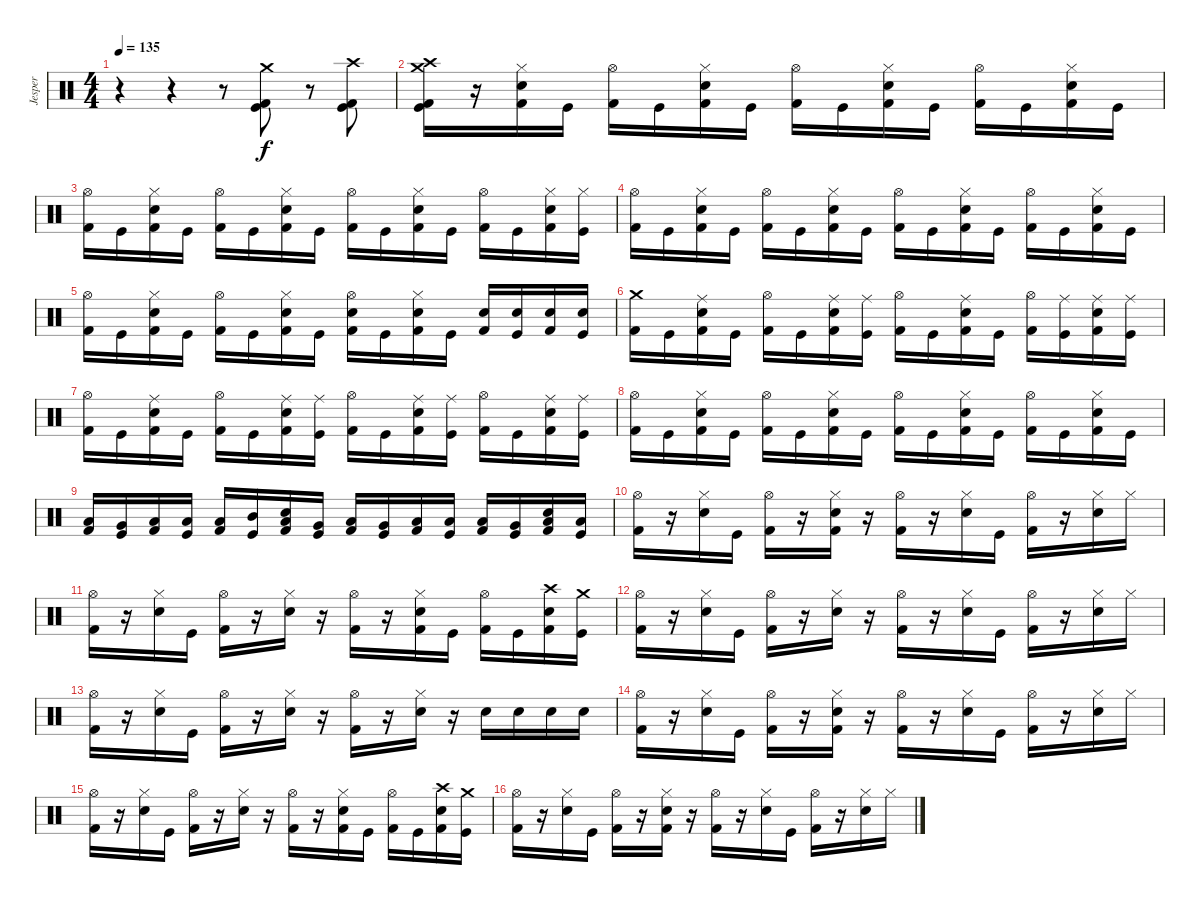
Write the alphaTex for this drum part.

\track ("Jesper" "Jesper") {instrument percussion}
\staff {score}
\articulation defaults
\ts (4 4)
\tempo 135
\clef neutral
\ks c
r.4{dy f} r.4 r.8 ("Kick (hit) 2" "Kick (hit)" "Crash medium (hit)").8 r.8 ("Kick (hit) 2" "Kick (hit)" "Crash high (hit)").8 |
("Kick (hit) 2" "Kick (hit)" "Crash high (hit)" "Crash medium (hit)").16 r.16 ("Kick (hit) 2" "Snare (hit) 2" "Hi-Hat (closed)").16 "Kick (hit)".16 ("Kick (hit) 2" "Hi-Hat (open)").16 "Kick (hit)".16 ("Kick (hit) 2" "Snare (hit) 2" "Hi-Hat (closed)").16 "Kick (hit)".16 ("Kick (hit) 2" "Hi-Hat (open)").16 "Kick (hit)".16 ("Kick (hit) 2" "Snare (hit) 2" "Hi-Hat (closed)").16 "Kick (hit)".16 ("Kick (hit) 2" "Hi-Hat (open)").16 "Kick (hit)".16 ("Kick (hit) 2" "Snare (hit) 2" "Hi-Hat (closed)").16 "Kick (hit)".16 |
("Kick (hit) 2" "Hi-Hat (open)").16 "Kick (hit)".16 ("Kick (hit) 2" "Snare (hit) 2" "Hi-Hat (closed)").16 "Kick (hit)".16 ("Kick (hit) 2" "Hi-Hat (open)").16 "Kick (hit)".16 ("Kick (hit) 2" "Snare (hit) 2" "Hi-Hat (closed)").16 "Kick (hit)".16 ("Kick (hit) 2" "Hi-Hat (open)").16 "Kick (hit)".16 ("Kick (hit) 2" "Snare (hit) 2" "Hi-Hat (closed)").16 "Kick (hit)".16 ("Kick (hit) 2" "Hi-Hat (open)").16 "Kick (hit)".16 ("Kick (hit) 2" "Snare (hit) 2" "Hi-Hat (closed)").16 ("Kick (hit)" "Hi-Hat (closed)").16 |
("Kick (hit) 2" "Hi-Hat (open)").16 "Kick (hit)".16 ("Kick (hit) 2" "Snare (hit) 2" "Hi-Hat (closed)").16 "Kick (hit)".16 ("Kick (hit) 2" "Hi-Hat (open)").16 "Kick (hit)".16 ("Kick (hit) 2" "Snare (hit) 2" "Hi-Hat (closed)").16 "Kick (hit)".16 ("Kick (hit) 2" "Hi-Hat (open)").16 "Kick (hit)".16 ("Kick (hit) 2" "Snare (hit) 2" "Hi-Hat (closed)").16 "Kick (hit)".16 ("Kick (hit) 2" "Hi-Hat (open)").16 "Kick (hit)".16 ("Kick (hit) 2" "Snare (hit) 2" "Hi-Hat (closed)").16 "Kick (hit)".16 |
("Kick (hit) 2" "Hi-Hat (open)").16 "Kick (hit)".16 ("Kick (hit) 2" "Snare (hit) 2" "Hi-Hat (closed)").16 "Kick (hit)".16 ("Kick (hit) 2" "Hi-Hat (open)").16 "Kick (hit)".16 ("Kick (hit) 2" "Snare (hit) 2" "Hi-Hat (closed)").16 "Kick (hit)".16 ("Kick (hit) 2" "Snare (hit) 2" "Hi-Hat (open)").16 "Kick (hit)".16 ("Kick (hit) 2" "Snare (hit) 2" "Hi-Hat (closed)").16 "Kick (hit)".16 ("Kick (hit) 2" "Snare (hit) 2").16 ("Kick (hit)" "Snare (hit) 2").16 ("Kick (hit) 2" "Snare (hit) 2").16 ("Kick (hit)" "Snare (hit) 2").16 |
("Kick (hit) 2" "Crash medium (hit)").16 "Kick (hit)".16 ("Kick (hit) 2" "Snare (hit) 2" "Ride (middle)").16 "Kick (hit)".16 ("Kick (hit) 2" "Hi-Hat (open)").16 "Kick (hit)".16 ("Kick (hit) 2" "Snare (hit) 2" "Ride (middle)").16 ("Kick (hit)" "Ride (middle)").16 ("Kick (hit) 2" "Hi-Hat (open)").16 "Kick (hit)".16 ("Kick (hit) 2" "Snare (hit) 2" "Ride (middle)").16 "Kick (hit)".16 ("Kick (hit) 2" "Hi-Hat (open)").16 ("Kick (hit)" "Ride (middle)").16 ("Kick (hit) 2" "Snare (hit) 2" "Ride (middle)").16 ("Kick (hit)" "Ride (middle)").16 |
("Kick (hit) 2" "Hi-Hat (open)").16 "Kick (hit)".16 ("Kick (hit) 2" "Snare (hit) 2" "Ride (middle)").16 "Kick (hit)".16 ("Kick (hit) 2" "Hi-Hat (open)").16 "Kick (hit)".16 ("Kick (hit) 2" "Snare (hit) 2" "Ride (middle)").16 ("Kick (hit)" "Ride (middle)").16 ("Kick (hit) 2" "Hi-Hat (open)").16 "Kick (hit)".16 ("Kick (hit) 2" "Snare (hit) 2" "Ride (middle)").16 ("Kick (hit)" "Ride (middle)").16 ("Kick (hit) 2" "Hi-Hat (open)").16 "Kick (hit)".16 ("Kick (hit) 2" "Snare (hit) 2" "Ride (middle)").16 ("Kick (hit)" "Ride (middle)").16 |
("Kick (hit) 2" "Hi-Hat (open)").16 "Kick (hit)".16 ("Kick (hit) 2" "Snare (hit) 2" "Hi-Hat (closed)").16 "Kick (hit)".16 ("Kick (hit) 2" "Hi-Hat (open)").16 "Kick (hit)".16 ("Kick (hit) 2" "Snare (hit) 2" "Hi-Hat (closed)").16 "Kick (hit)".16 ("Kick (hit) 2" "Hi-Hat (open)").16 "Kick (hit)".16 ("Kick (hit) 2" "Snare (hit) 2" "Hi-Hat (closed)").16 "Kick (hit)".16 ("Kick (hit) 2" "Hi-Hat (open)").16 "Kick (hit)".16 ("Kick (hit) 2" "Snare (hit) 2" "Hi-Hat (closed)").16 "Kick (hit)".16 |
("Kick (hit) 2" "Low Floor Tom (hit)").16 ("Kick (hit)" "Very Low Tom (hit)").16 ("Kick (hit) 2" "Low Floor Tom (hit)").16 ("Kick (hit)" "Low Tom (hit)").16 ("Kick (hit) 2" "Low Floor Tom (hit)").16 ("Kick (hit)" "Mid Tom (hit)").16 ("Kick (hit) 2" "Snare (hit) 2" "Low Floor Tom (hit)").16 ("Kick (hit)" "Very Low Tom (hit)").16 ("Kick (hit) 2" "Low Floor Tom (hit)").16 ("Kick (hit)" "Very Low Tom (hit)").16 ("Kick (hit) 2" "Low Floor Tom (hit)").16 ("Kick (hit)" "Low Tom (hit)").16 ("Kick (hit) 2" "Low Floor Tom (hit)").16 ("Kick (hit)" "Very Low Tom (hit)").16 ("Kick (hit) 2" "Snare (hit) 2" "Low Floor Tom (hit)").16 ("Kick (hit)" "Low Floor Tom (hit)").16 |
("Kick (hit) 2" "Hi-Hat (open)").16 r.16 ("Snare (hit) 2" "Hi-Hat (closed)").16 "Kick (hit)".16 ("Kick (hit) 2" "Hi-Hat (open)").16 r.16 ("Kick (hit) 2" "Snare (hit) 2" "Hi-Hat (closed)").16 r.16 ("Kick (hit) 2" "Hi-Hat (open)").16 r.16 ("Snare (hit) 2" "Hi-Hat (closed)").16 "Kick (hit)".16 ("Kick (hit) 2" "Hi-Hat (open)").16 r.16 ("Snare (hit) 2" "Hi-Hat (closed)").16 "Hi-Hat (closed)".16 |
("Kick (hit) 2" "Hi-Hat (open)").16 r.16 ("Snare (hit) 2" "Hi-Hat (closed)").16 "Kick (hit)".16 ("Kick (hit) 2" "Hi-Hat (open)").16 r.16 ("Snare (hit) 2" "Hi-Hat (closed)").16 r.16 ("Kick (hit) 2" "Hi-Hat (open)").16 r.16 ("Kick (hit) 2" "Snare (hit) 2" "Hi-Hat (closed)").16 "Kick (hit)".16 ("Kick (hit) 2" "Hi-Hat (open)").16 "Kick (hit)".16 ("Kick (hit) 2" "Snare (hit) 2" "Crash high (hit)").16 ("Kick (hit)" "Crash medium (hit)").16 |
("Kick (hit) 2" "Hi-Hat (open)").16 r.16 ("Snare (hit) 2" "Hi-Hat (closed)").16 "Kick (hit)".16 ("Kick (hit) 2" "Hi-Hat (open)").16 r.16 ("Snare (hit) 2" "Hi-Hat (closed)").16 r.16 ("Kick (hit) 2" "Hi-Hat (open)").16 r.16 ("Snare (hit) 2" "Hi-Hat (closed)").16 "Kick (hit)".16 ("Kick (hit) 2" "Hi-Hat (open)").16 r.16 ("Snare (hit) 2" "Hi-Hat (closed)").16 "Hi-Hat (closed)".16 |
("Kick (hit) 2" "Hi-Hat (open)").16 r.16 ("Snare (hit) 2" "Hi-Hat (closed)").16 "Kick (hit)".16 ("Kick (hit) 2" "Hi-Hat (open)").16 r.16 ("Snare (hit) 2" "Hi-Hat (closed)").16 r.16 ("Kick (hit) 2" "Hi-Hat (open)").16 r.16 ("Snare (hit) 2" "Hi-Hat (closed)").16 r.16 "Snare (hit) 2".16 "Snare (hit) 2".16 "Snare (hit) 2".16 "Snare (hit) 2".16 |
("Kick (hit) 2" "Hi-Hat (open)").16 r.16 ("Snare (hit) 2" "Hi-Hat (closed)").16 "Kick (hit)".16 ("Kick (hit) 2" "Hi-Hat (open)").16 r.16 ("Kick (hit) 2" "Snare (hit) 2" "Hi-Hat (closed)").16 r.16 ("Kick (hit) 2" "Hi-Hat (open)").16 r.16 ("Snare (hit) 2" "Hi-Hat (closed)").16 "Kick (hit)".16 ("Kick (hit) 2" "Hi-Hat (open)").16 r.16 ("Snare (hit) 2" "Hi-Hat (closed)").16 "Hi-Hat (closed)".16 |
("Kick (hit) 2" "Hi-Hat (open)").16 r.16 ("Snare (hit) 2" "Hi-Hat (closed)").16 "Kick (hit)".16 ("Kick (hit) 2" "Hi-Hat (open)").16 r.16 ("Snare (hit) 2" "Hi-Hat (closed)").16 r.16 ("Kick (hit) 2" "Hi-Hat (open)").16 r.16 ("Kick (hit) 2" "Snare (hit) 2" "Hi-Hat (closed)").16 "Kick (hit)".16 ("Kick (hit) 2" "Hi-Hat (open)").16 "Kick (hit)".16 ("Kick (hit) 2" "Snare (hit) 2" "Crash high (hit)").16 ("Kick (hit)" "Crash medium (hit)").16 |
("Kick (hit) 2" "Hi-Hat (open)").16 r.16 ("Snare (hit) 2" "Hi-Hat (closed)").16 "Kick (hit)".16 ("Kick (hit) 2" "Hi-Hat (open)").16 r.16 ("Kick (hit) 2" "Snare (hit) 2" "Hi-Hat (closed)").16 r.16 ("Kick (hit) 2" "Hi-Hat (open)").16 r.16 ("Snare (hit) 2" "Hi-Hat (closed)").16 "Kick (hit)".16 ("Kick (hit) 2" "Hi-Hat (open)").16 r.16 ("Snare (hit) 2" "Hi-Hat (closed)").16 "Hi-Hat (closed)".16
